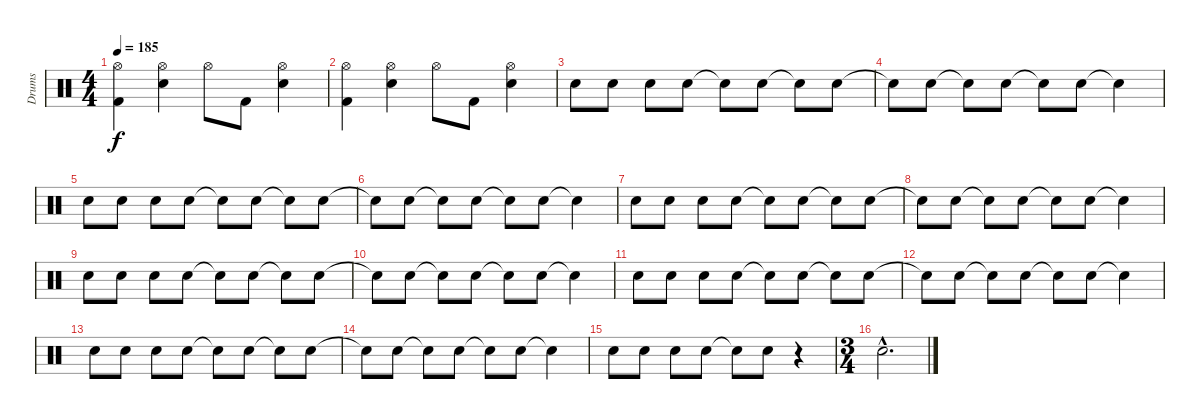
\track ("Drums" "Drums") {instrument percussion}
\staff {score}
\articulation defaults
\ts (4 4)
\tempo 185
\clef neutral
\ks c
("Hi-Hat (open)" "Kick (hit) 2").4{dy f} ("Hi-Hat (open)" "Electric Snare (hit)").4 "Hi-Hat (open)".8 "Kick (hit) 2".8 ("Hi-Hat (open)" "Electric Snare (hit)").4 |
("Hi-Hat (open)" "Kick (hit) 2").4 ("Hi-Hat (open)" "Electric Snare (hit)").4 "Hi-Hat (open)".8 "Kick (hit) 2".8 ("Hi-Hat (open)" "Electric Snare (hit)").4 |
"Electric Snare (hit)".8 "Electric Snare (hit)".8 "Electric Snare (hit)".8 "Electric Snare (hit)".8 "Snare (hit)"{t}.8 "Electric Snare (hit)".8 "Snare (hit)"{t}.8 "Electric Snare (hit)".8 |
"Snare (hit)"{t}.8 "Electric Snare (hit)".8 "Snare (hit)"{t}.8 "Electric Snare (hit)".8 "Snare (hit)"{t}.8 "Electric Snare (hit)".8 "Snare (hit)"{t}.4 |
"Electric Snare (hit)".8 "Electric Snare (hit)".8 "Electric Snare (hit)".8 "Electric Snare (hit)".8 "Snare (hit)"{t}.8 "Electric Snare (hit)".8 "Snare (hit)"{t}.8 "Electric Snare (hit)".8 |
"Snare (hit)"{t}.8 "Electric Snare (hit)".8 "Snare (hit)"{t}.8 "Electric Snare (hit)".8 "Snare (hit)"{t}.8 "Electric Snare (hit)".8 "Snare (hit)"{t}.4 |
"Electric Snare (hit)".8 "Electric Snare (hit)".8 "Electric Snare (hit)".8 "Electric Snare (hit)".8 "Snare (hit)"{t}.8 "Electric Snare (hit)".8 "Snare (hit)"{t}.8 "Electric Snare (hit)".8 |
"Snare (hit)"{t}.8 "Electric Snare (hit)".8 "Snare (hit)"{t}.8 "Electric Snare (hit)".8 "Snare (hit)"{t}.8 "Electric Snare (hit)".8 "Snare (hit)"{t}.4 |
"Electric Snare (hit)".8 "Electric Snare (hit)".8 "Electric Snare (hit)".8 "Electric Snare (hit)".8 "Snare (hit)"{t}.8 "Electric Snare (hit)".8 "Snare (hit)"{t}.8 "Electric Snare (hit)".8 |
"Snare (hit)"{t}.8 "Electric Snare (hit)".8 "Snare (hit)"{t}.8 "Electric Snare (hit)".8 "Snare (hit)"{t}.8 "Electric Snare (hit)".8 "Snare (hit)"{t}.4 |
"Electric Snare (hit)".8 "Electric Snare (hit)".8 "Electric Snare (hit)".8 "Electric Snare (hit)".8 "Snare (hit)"{t}.8 "Electric Snare (hit)".8 "Snare (hit)"{t}.8 "Electric Snare (hit)".8 |
"Snare (hit)"{t}.8 "Electric Snare (hit)".8 "Snare (hit)"{t}.8 "Electric Snare (hit)".8 "Snare (hit)"{t}.8 "Electric Snare (hit)".8 "Snare (hit)"{t}.4 |
"Electric Snare (hit)".8 "Electric Snare (hit)".8 "Electric Snare (hit)".8 "Electric Snare (hit)".8 "Snare (hit)"{t}.8 "Electric Snare (hit)".8 "Snare (hit)"{t}.8 "Electric Snare (hit)".8 |
"Snare (hit)"{t}.8 "Electric Snare (hit)".8 "Snare (hit)"{t}.8 "Electric Snare (hit)".8 "Snare (hit)"{t}.8 "Electric Snare (hit)".8 "Snare (hit)"{t}.4 |
"Electric Snare (hit)".8 "Electric Snare (hit)".8 "Electric Snare (hit)".8 "Electric Snare (hit)".8 "Snare (hit)"{t}.8 "Electric Snare (hit)".8 r.4 |
\ts (3 4)
"Electric Snare (hit)"{hac}.2{d}
